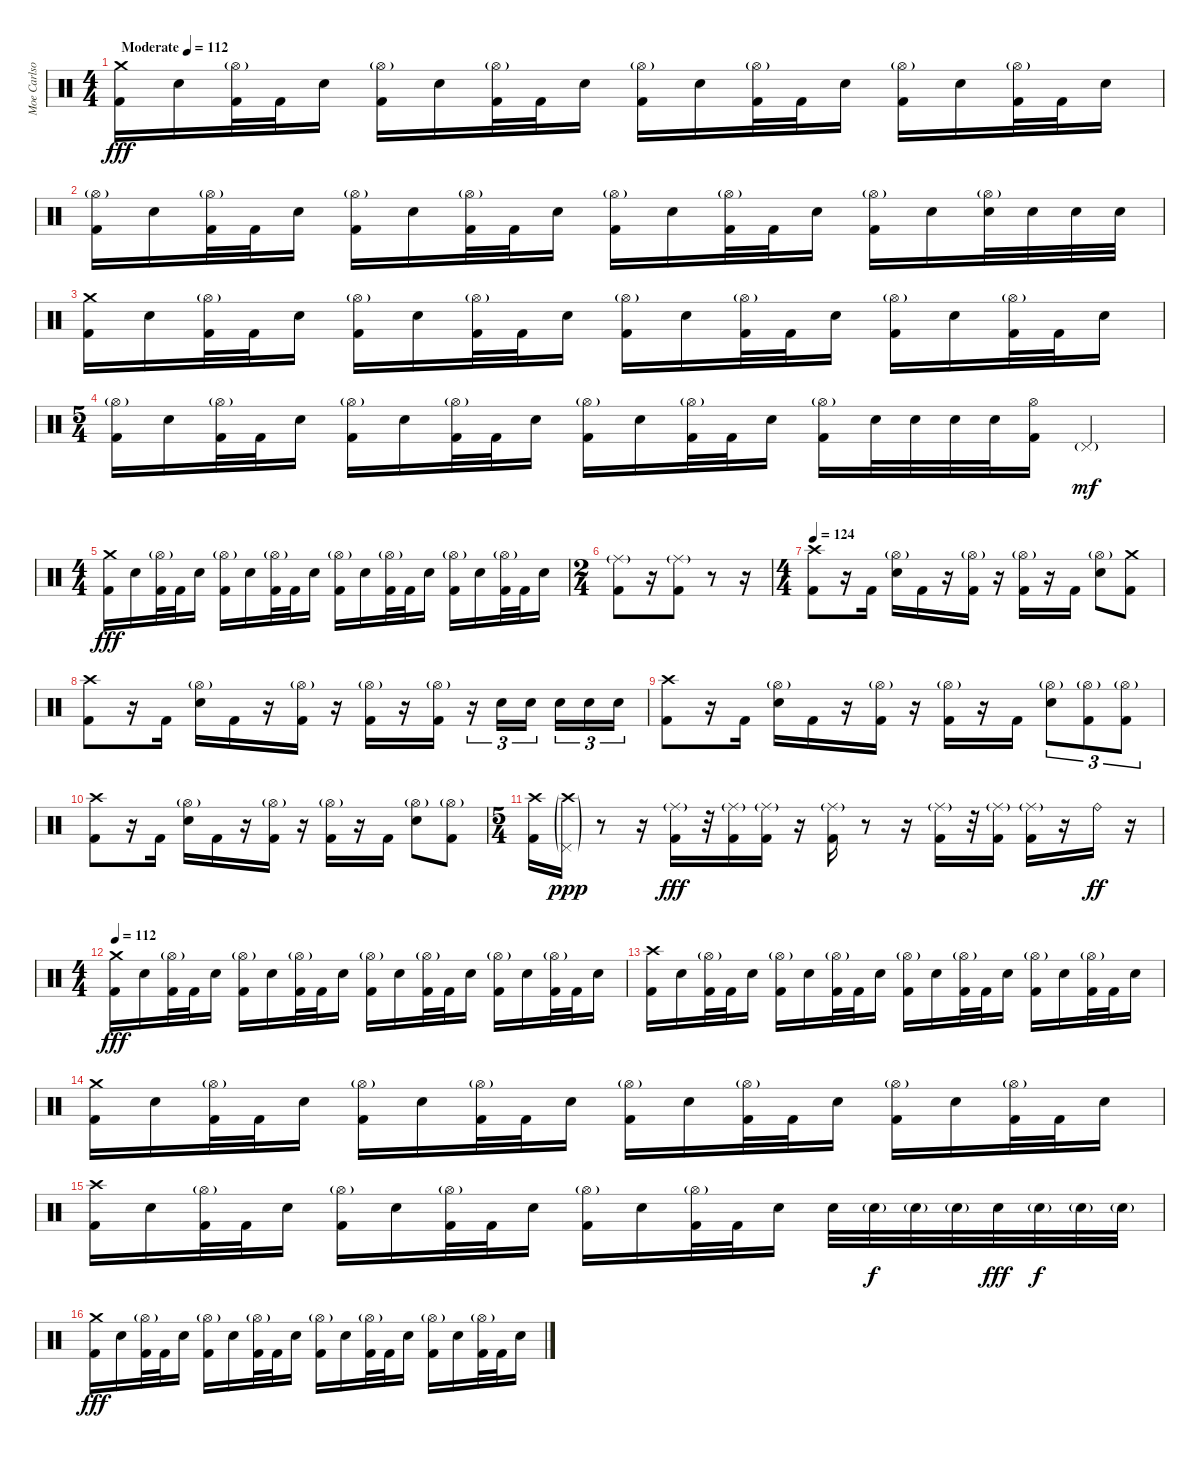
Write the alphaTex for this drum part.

\track ("Moe Carlson" "Moe Carlso") {instrument percussion}
\staff {score}
\articulation defaults
\ts (4 4)
\tempo (112 "Moderate")
\clef neutral
\ks c
("Crash medium (hit)" "Kick (hit) 2").16{dy fff} "Electric Snare (hit)".16 ("Hi-Hat (open)"{g} "Kick (hit) 2").32 "Kick (hit) 2".32 "Electric Snare (hit)".16 ("Hi-Hat (open)"{g} "Kick (hit) 2").16 "Electric Snare (hit)".16 ("Hi-Hat (open)"{g} "Kick (hit) 2").32 "Kick (hit) 2".32 "Electric Snare (hit)".16 ("Hi-Hat (open)"{g} "Kick (hit) 2").16 "Electric Snare (hit)".16 ("Hi-Hat (open)"{g} "Kick (hit) 2").32 "Kick (hit) 2".32 "Electric Snare (hit)".16 ("Hi-Hat (open)"{g} "Kick (hit) 2").16 "Electric Snare (hit)".16 ("Hi-Hat (open)"{g} "Kick (hit) 2").32 "Kick (hit) 2".32 "Electric Snare (hit)".16 |
("Hi-Hat (open)"{g} "Kick (hit) 2").16 "Electric Snare (hit)".16 ("Hi-Hat (open)"{g} "Kick (hit) 2").32 "Kick (hit) 2".32 "Electric Snare (hit)".16 ("Hi-Hat (open)"{g} "Kick (hit) 2").16 "Electric Snare (hit)".16 ("Hi-Hat (open)"{g} "Kick (hit) 2").32 "Kick (hit) 2".32 "Electric Snare (hit)".16 ("Hi-Hat (open)"{g} "Kick (hit) 2").16 "Electric Snare (hit)".16 ("Hi-Hat (open)"{g} "Kick (hit) 2").32 "Kick (hit) 2".32 "Electric Snare (hit)".16 ("Hi-Hat (open)"{g} "Kick (hit) 2").16 "Electric Snare (hit)".16 ("Hi-Hat (open)"{g} "Electric Snare (hit)").32 "Electric Snare (hit)".32 "Electric Snare (hit)".32 "Electric Snare (hit)".32 |
("Crash medium (hit)" "Kick (hit) 2").16 "Electric Snare (hit)".16 ("Hi-Hat (open)"{g} "Kick (hit) 2").32 "Kick (hit) 2".32 "Electric Snare (hit)".16 ("Hi-Hat (open)"{g} "Kick (hit) 2").16 "Electric Snare (hit)".16 ("Hi-Hat (open)"{g} "Kick (hit) 2").32 "Kick (hit) 2".32 "Electric Snare (hit)".16 ("Hi-Hat (open)"{g} "Kick (hit) 2").16 "Electric Snare (hit)".16 ("Hi-Hat (open)"{g} "Kick (hit) 2").32 "Kick (hit) 2".32 "Electric Snare (hit)".16 ("Hi-Hat (open)"{g} "Kick (hit) 2").16 "Electric Snare (hit)".16 ("Hi-Hat (open)"{g} "Kick (hit) 2").32 "Kick (hit) 2".32 "Electric Snare (hit)".16 |
\ts (5 4)
("Hi-Hat (open)"{g} "Kick (hit) 2").16 "Electric Snare (hit)".16 ("Hi-Hat (open)"{g} "Kick (hit) 2").32 "Kick (hit) 2".32 "Electric Snare (hit)".16 ("Hi-Hat (open)"{g} "Kick (hit) 2").16 "Electric Snare (hit)".16 ("Hi-Hat (open)"{g} "Kick (hit) 2").32 "Kick (hit) 2".32 "Electric Snare (hit)".16 ("Hi-Hat (open)"{g} "Kick (hit) 2").16 "Electric Snare (hit)".16 ("Hi-Hat (open)"{g} "Kick (hit) 2").32 "Kick (hit) 2".32 "Electric Snare (hit)".16 ("Hi-Hat (open)"{g} "Kick (hit) 2").16 "Electric Snare (hit)".32 "Electric Snare (hit)".32 "Electric Snare (hit)".32 "Electric Snare (hit)".32 ("Hi-Hat (open)" "Kick (hit) 2").16 "Pedal Hi-Hat (hit)"{g}.4{dy mf} |
\ts (4 4)
("Crash medium (hit)" "Kick (hit) 2").16{dy fff} "Electric Snare (hit)".16 ("Hi-Hat (open)"{g} "Kick (hit) 2").32 "Kick (hit) 2".32 "Electric Snare (hit)".16 ("Hi-Hat (open)"{g} "Kick (hit) 2").16 "Electric Snare (hit)".16 ("Hi-Hat (open)"{g} "Kick (hit) 2").32 "Kick (hit) 2".32 "Electric Snare (hit)".16 ("Hi-Hat (open)"{g} "Kick (hit) 2").16 "Electric Snare (hit)".16 ("Hi-Hat (open)"{g} "Kick (hit) 2").32 "Kick (hit) 2".32 "Electric Snare (hit)".16 ("Hi-Hat (open)"{g} "Kick (hit) 2").16 "Electric Snare (hit)".16 ("Hi-Hat (open)"{g} "Kick (hit) 2").32 "Kick (hit) 2".32 "Electric Snare (hit)".16 |
\ts (2 4)
("Ride (middle)"{g} "Kick (hit) 2").8 r.16 ("Ride (middle)"{g} "Kick (hit) 2").8 r.8 r.16 |
\ts (4 4)
\tempo 124
("Crash high (hit)" "Kick (hit) 2").8 r.16 "Kick (hit) 2".16 ("Hi-Hat (open)"{g} "Electric Snare (hit)").16 "Kick (hit) 2".16 r.16 ("Hi-Hat (open)"{g} "Kick (hit) 2").16 r.16 ("Hi-Hat (open)"{g} "Kick (hit) 2").16 r.16 "Kick (hit) 2".16 ("Hi-Hat (open)"{g} "Electric Snare (hit)").8 ("Crash medium (hit)" "Kick (hit) 2").8 |
("Crash high (hit)" "Kick (hit) 2").8 r.16 "Kick (hit) 2".16 ("Hi-Hat (open)"{g} "Electric Snare (hit)").16 "Kick (hit) 2".16 r.16 ("Hi-Hat (open)"{g} "Kick (hit) 2").16 r.16 ("Hi-Hat (open)"{g} "Kick (hit) 2").16 r.16 ("Hi-Hat (open)"{g} "Kick (hit) 2").16 r.16{tu (3 2)} "Electric Snare (hit)".16{tu (3 2)} "Electric Snare (hit)".16{tu (3 2) beam splitsecondary} "Electric Snare (hit)".16{tu (3 2)} "Electric Snare (hit)".16{tu (3 2)} "Electric Snare (hit)".16{tu (3 2)} |
("Crash high (hit)" "Kick (hit) 2").8 r.16 "Kick (hit) 2".16 ("Hi-Hat (open)"{g} "Electric Snare (hit)").16 "Kick (hit) 2".16 r.16 ("Hi-Hat (open)"{g} "Kick (hit) 2").16 r.16 ("Hi-Hat (open)"{g} "Kick (hit) 2").16 r.16 "Kick (hit) 2".16 ("Hi-Hat (open)"{g} "Electric Snare (hit)").8{tu (3 2)} ("Hi-Hat (open)"{g} "Kick (hit) 2").8{tu (3 2)} ("Hi-Hat (open)"{g} "Kick (hit) 2").8{tu (3 2)} |
("Crash high (hit)" "Kick (hit) 2").8 r.16 "Kick (hit) 2".16 ("Hi-Hat (open)"{g} "Electric Snare (hit)").16 "Kick (hit) 2".16 r.16 ("Hi-Hat (open)"{g} "Kick (hit) 2").16 r.16 ("Hi-Hat (open)"{g} "Kick (hit) 2").16 r.16 "Kick (hit) 2".16 ("Hi-Hat (open)"{g} "Electric Snare (hit)").8 ("Hi-Hat (open)"{g} "Kick (hit) 2").8 |
\ts (5 4)
("Crash high (hit)" "Kick (hit) 2").16 ("Crash high (hit)"{g} "Pedal Hi-Hat (hit)"{g}).16{dy ppp} r.8 r.16 ("Ride (middle)"{g} "Kick (hit) 2").16{dy fff} r.32 ("Ride (middle)"{g} "Kick (hit) 2").16 ("Ride (middle)"{g} "Kick (hit) 2").16 r.16 ("Ride (middle)"{g} "Kick (hit) 2").16 r.8 r.16 ("Ride (middle)"{g} "Kick (hit) 2").16 r.32 ("Ride (middle)"{g} "Kick (hit) 2").16 ("Ride (middle)"{g} "Kick (hit) 2").16 r.16 "Ride (bell)".16{dy ff} r.16 |
\ts (4 4)
\tempo 112
("Crash medium (hit)" "Kick (hit) 2").16{dy fff} "Electric Snare (hit)".16 ("Hi-Hat (open)"{g} "Kick (hit) 2").32 "Kick (hit) 2".32 "Electric Snare (hit)".16 ("Hi-Hat (open)"{g} "Kick (hit) 2").16 "Electric Snare (hit)".16 ("Hi-Hat (open)"{g} "Kick (hit) 2").32 "Kick (hit) 2".32 "Electric Snare (hit)".16 ("Hi-Hat (open)"{g} "Kick (hit) 2").16 "Electric Snare (hit)".16 ("Hi-Hat (open)"{g} "Kick (hit) 2").32 "Kick (hit) 2".32 "Electric Snare (hit)".16 ("Hi-Hat (open)"{g} "Kick (hit) 2").16 "Electric Snare (hit)".16 ("Hi-Hat (open)"{g} "Kick (hit) 2").32 "Kick (hit) 2".32 "Electric Snare (hit)".16 |
("Crash high (hit)" "Kick (hit) 2").16 "Electric Snare (hit)".16 ("Hi-Hat (open)"{g} "Kick (hit) 2").32 "Kick (hit) 2".32 "Electric Snare (hit)".16 ("Hi-Hat (open)"{g} "Kick (hit) 2").16 "Electric Snare (hit)".16 ("Hi-Hat (open)"{g} "Kick (hit) 2").32 "Kick (hit) 2".32 "Electric Snare (hit)".16 ("Hi-Hat (open)"{g} "Kick (hit) 2").16 "Electric Snare (hit)".16 ("Hi-Hat (open)"{g} "Kick (hit) 2").32 "Kick (hit) 2".32 "Electric Snare (hit)".16 ("Hi-Hat (open)"{g} "Kick (hit) 2").16 "Electric Snare (hit)".16 ("Hi-Hat (open)"{g} "Kick (hit) 2").32 "Kick (hit) 2".32 "Electric Snare (hit)".16 |
("Crash medium (hit)" "Kick (hit) 2").16 "Electric Snare (hit)".16 ("Hi-Hat (open)"{g} "Kick (hit) 2").32 "Kick (hit) 2".32 "Electric Snare (hit)".16 ("Hi-Hat (open)"{g} "Kick (hit) 2").16 "Electric Snare (hit)".16 ("Hi-Hat (open)"{g} "Kick (hit) 2").32 "Kick (hit) 2".32 "Electric Snare (hit)".16 ("Hi-Hat (open)"{g} "Kick (hit) 2").16 "Electric Snare (hit)".16 ("Hi-Hat (open)"{g} "Kick (hit) 2").32 "Kick (hit) 2".32 "Electric Snare (hit)".16 ("Hi-Hat (open)"{g} "Kick (hit) 2").16 "Electric Snare (hit)".16 ("Hi-Hat (open)"{g} "Kick (hit) 2").32 "Kick (hit) 2".32 "Electric Snare (hit)".16 |
("Crash high (hit)" "Kick (hit) 2").16 "Electric Snare (hit)".16 ("Hi-Hat (open)"{g} "Kick (hit) 2").32 "Kick (hit) 2".32 "Electric Snare (hit)".16 ("Hi-Hat (open)"{g} "Kick (hit) 2").16 "Electric Snare (hit)".16 ("Hi-Hat (open)"{g} "Kick (hit) 2").32 "Kick (hit) 2".32 "Electric Snare (hit)".16 ("Hi-Hat (open)"{g} "Kick (hit) 2").16 "Electric Snare (hit)".16 ("Hi-Hat (open)"{g} "Kick (hit) 2").32 "Kick (hit) 2".32 "Electric Snare (hit)".16 "Electric Snare (hit)".32 "Electric Snare (hit)"{g}.32{dy f} "Electric Snare (hit)"{g}.32 "Electric Snare (hit)"{g}.32 "Electric Snare (hit)".32{dy fff} "Electric Snare (hit)"{g}.32{dy f} "Electric Snare (hit)"{g}.32 "Electric Snare (hit)"{g}.32 |
("Crash medium (hit)" "Kick (hit) 2").16{dy fff} "Electric Snare (hit)".16 ("Hi-Hat (open)"{g} "Kick (hit) 2").32 "Kick (hit) 2".32 "Electric Snare (hit)".16 ("Hi-Hat (open)"{g} "Kick (hit) 2").16 "Electric Snare (hit)".16 ("Hi-Hat (open)"{g} "Kick (hit) 2").32 "Kick (hit) 2".32 "Electric Snare (hit)".16 ("Hi-Hat (open)"{g} "Kick (hit) 2").16 "Electric Snare (hit)".16 ("Hi-Hat (open)"{g} "Kick (hit) 2").32 "Kick (hit) 2".32 "Electric Snare (hit)".16 ("Hi-Hat (open)"{g} "Kick (hit) 2").16 "Electric Snare (hit)".16 ("Hi-Hat (open)"{g} "Kick (hit) 2").32 "Kick (hit) 2".32 "Electric Snare (hit)".16
